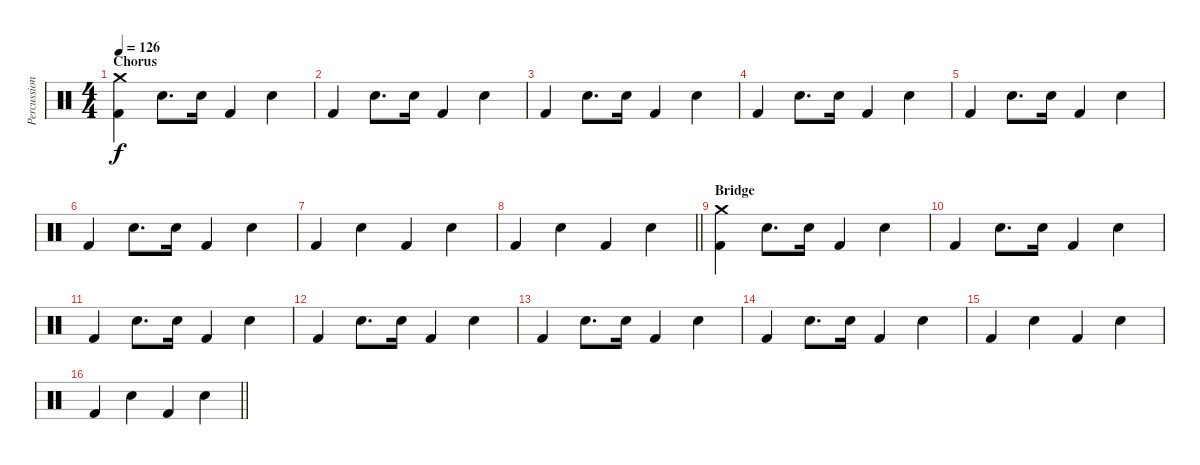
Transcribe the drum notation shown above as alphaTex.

\track ("Percussion" "Percussion") {instrument percussion}
\staff {score}
\articulation defaults
\ts (4 4)
\section ("" "Chorus")
\tempo 126
\clef neutral
\ks c
("Crash medium (hit)" "Kick (hit) 2").4{dy f} "Electric Snare (hit)".8{d} "Electric Snare (hit)".16 "Kick (hit) 2".4 "Electric Snare (hit)".4 |
"Kick (hit) 2".4 "Electric Snare (hit)".8{d} "Electric Snare (hit)".16 "Kick (hit) 2".4 "Electric Snare (hit)".4 |
"Kick (hit) 2".4 "Electric Snare (hit)".8{d} "Electric Snare (hit)".16 "Kick (hit) 2".4 "Electric Snare (hit)".4 |
"Kick (hit) 2".4 "Electric Snare (hit)".8{d} "Electric Snare (hit)".16 "Kick (hit) 2".4 "Electric Snare (hit)".4 |
"Kick (hit) 2".4 "Electric Snare (hit)".8{d} "Electric Snare (hit)".16 "Kick (hit) 2".4 "Electric Snare (hit)".4 |
"Kick (hit) 2".4 "Electric Snare (hit)".8{d} "Electric Snare (hit)".16 "Kick (hit) 2".4 "Electric Snare (hit)".4 |
"Kick (hit) 2".4 "Electric Snare (hit)".4 "Kick (hit) 2".4 "Electric Snare (hit)".4 |
\barLineRight lightlight "Kick (hit) 2".4 "Electric Snare (hit)".4 "Kick (hit) 2".4 "Electric Snare (hit)".4
|
\section ("" "Bridge")
("Crash medium (hit)" "Kick (hit) 2").4 "Electric Snare (hit)".8{d} "Electric Snare (hit)".16 "Kick (hit) 2".4 "Electric Snare (hit)".4 |
"Kick (hit) 2".4 "Electric Snare (hit)".8{d} "Electric Snare (hit)".16 "Kick (hit) 2".4 "Electric Snare (hit)".4 |
"Kick (hit) 2".4 "Electric Snare (hit)".8{d} "Electric Snare (hit)".16 "Kick (hit) 2".4 "Electric Snare (hit)".4 |
"Kick (hit) 2".4 "Electric Snare (hit)".8{d} "Electric Snare (hit)".16 "Kick (hit) 2".4 "Electric Snare (hit)".4 |
"Kick (hit) 2".4 "Electric Snare (hit)".8{d} "Electric Snare (hit)".16 "Kick (hit) 2".4 "Electric Snare (hit)".4 |
"Kick (hit) 2".4 "Electric Snare (hit)".8{d} "Electric Snare (hit)".16 "Kick (hit) 2".4 "Electric Snare (hit)".4 |
"Kick (hit) 2".4 "Electric Snare (hit)".4 "Kick (hit) 2".4 "Electric Snare (hit)".4 |
\barLineRight lightlight "Kick (hit) 2".4 "Electric Snare (hit)".4 "Kick (hit) 2".4 "Electric Snare (hit)".4
